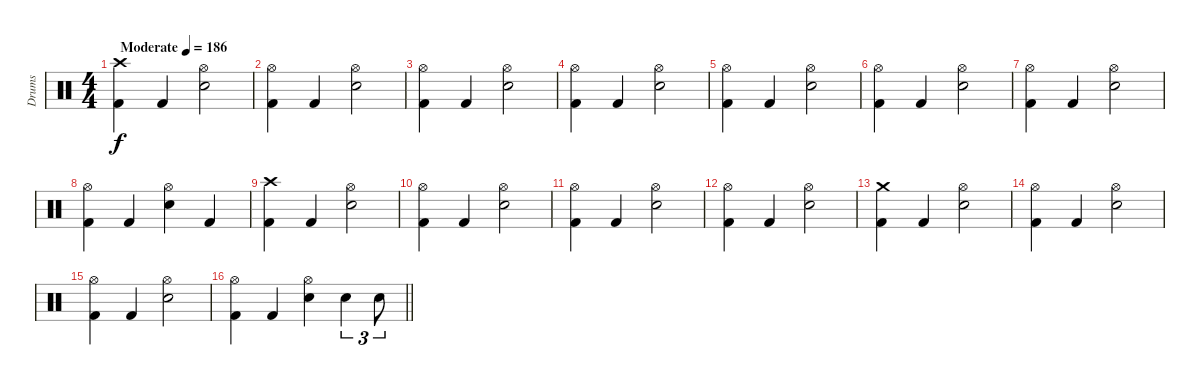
\track ("Drums" "Drums") {instrument percussion}
\staff {score}
\articulation defaults
\ts (4 4)
\tempo (186 "Moderate")
\clef neutral
\ks c
("Crash high (hit)" "Kick (hit) 2").4{dy f} "Kick (hit) 2".4 ("Hi-Hat (open)" "Electric Snare (hit)").2 |
("Hi-Hat (open)" "Kick (hit) 2").4 "Kick (hit) 2".4 ("Hi-Hat (open)" "Electric Snare (hit)").2 |
("Hi-Hat (open)" "Kick (hit) 2").4 "Kick (hit) 2".4 ("Hi-Hat (open)" "Electric Snare (hit)").2 |
("Hi-Hat (open)" "Kick (hit) 2").4 "Kick (hit) 2".4 ("Hi-Hat (open)" "Electric Snare (hit)").2 |
("Hi-Hat (open)" "Kick (hit) 2").4 "Kick (hit) 2".4 ("Hi-Hat (open)" "Electric Snare (hit)").2 |
("Hi-Hat (open)" "Kick (hit) 2").4 "Kick (hit) 2".4 ("Hi-Hat (open)" "Electric Snare (hit)").2 |
("Hi-Hat (open)" "Kick (hit) 2").4 "Kick (hit) 2".4 ("Hi-Hat (open)" "Electric Snare (hit)").2 |
("Hi-Hat (open)" "Kick (hit) 2").4 "Kick (hit) 2".4 ("Hi-Hat (open)" "Electric Snare (hit)").4 "Kick (hit) 2".4 |
("Crash high (hit)" "Kick (hit) 2").4 "Kick (hit) 2".4 ("Hi-Hat (open)" "Electric Snare (hit)").2 |
("Hi-Hat (open)" "Kick (hit) 2").4 "Kick (hit) 2".4 ("Hi-Hat (open)" "Electric Snare (hit)").2 |
("Hi-Hat (open)" "Kick (hit) 2").4 "Kick (hit) 2".4 ("Hi-Hat (open)" "Electric Snare (hit)").2 |
("Hi-Hat (open)" "Kick (hit) 2").4 "Kick (hit) 2".4 ("Hi-Hat (open)" "Electric Snare (hit)").2 |
("Crash medium (hit)" "Kick (hit) 2").4 "Kick (hit) 2".4 ("Hi-Hat (open)" "Electric Snare (hit)").2 |
("Hi-Hat (open)" "Kick (hit) 2").4 "Kick (hit) 2".4 ("Hi-Hat (open)" "Electric Snare (hit)").2 |
("Hi-Hat (open)" "Kick (hit) 2").4 "Kick (hit) 2".4 ("Hi-Hat (open)" "Electric Snare (hit)").2 |
\barLineRight lightlight
("Hi-Hat (open)" "Kick (hit) 2").4 "Kick (hit) 2".4 ("Hi-Hat (open)" "Electric Snare (hit)").4 "Electric Snare (hit)".4{tu (3 2)} "Electric Snare (hit)".8{tu (3 2)}
